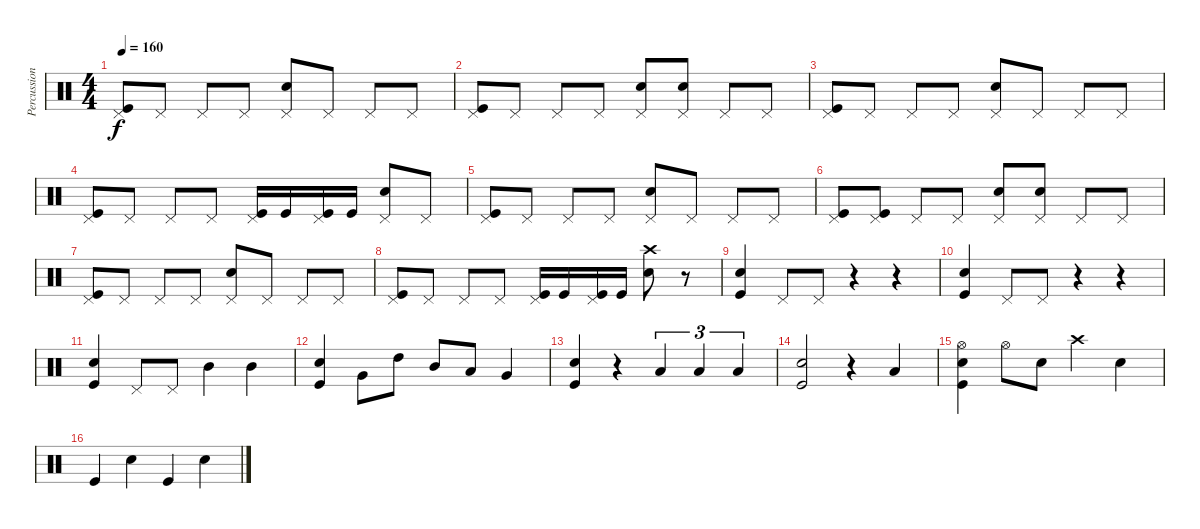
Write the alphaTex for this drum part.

\track ("Percussion" "Percussion") {instrument percussion}
\staff {score}
\articulation defaults
\ts (4 4)
\tempo 160
\clef neutral
\ks c
("Pedal Hi-Hat (hit)" "Kick (hit)").8{dy f} "Pedal Hi-Hat (hit)".8 "Pedal Hi-Hat (hit)".8 "Pedal Hi-Hat (hit)".8 ("Pedal Hi-Hat (hit)" "Electric Snare (hit)").8 "Pedal Hi-Hat (hit)".8 "Pedal Hi-Hat (hit)".8 "Pedal Hi-Hat (hit)".8 |
("Pedal Hi-Hat (hit)" "Kick (hit)").8 "Pedal Hi-Hat (hit)".8 "Pedal Hi-Hat (hit)".8 "Pedal Hi-Hat (hit)".8 ("Pedal Hi-Hat (hit)" "Electric Snare (hit)").8 ("Pedal Hi-Hat (hit)" "Electric Snare (hit)").8 "Pedal Hi-Hat (hit)".8 "Pedal Hi-Hat (hit)".8 |
("Pedal Hi-Hat (hit)" "Kick (hit)").8 "Pedal Hi-Hat (hit)".8 "Pedal Hi-Hat (hit)".8 "Pedal Hi-Hat (hit)".8 ("Pedal Hi-Hat (hit)" "Electric Snare (hit)").8 "Pedal Hi-Hat (hit)".8 "Pedal Hi-Hat (hit)".8 "Pedal Hi-Hat (hit)".8 |
("Pedal Hi-Hat (hit)" "Kick (hit)").8 "Pedal Hi-Hat (hit)".8 "Pedal Hi-Hat (hit)".8 "Pedal Hi-Hat (hit)".8 ("Pedal Hi-Hat (hit)" "Kick (hit)").16 "Kick (hit)".16 ("Pedal Hi-Hat (hit)" "Kick (hit)").16 "Kick (hit)".16 ("Pedal Hi-Hat (hit)" "Electric Snare (hit)").8 "Pedal Hi-Hat (hit)".8 |
("Pedal Hi-Hat (hit)" "Kick (hit)").8 "Pedal Hi-Hat (hit)".8 "Pedal Hi-Hat (hit)".8 "Pedal Hi-Hat (hit)".8 ("Pedal Hi-Hat (hit)" "Electric Snare (hit)").8 "Pedal Hi-Hat (hit)".8 "Pedal Hi-Hat (hit)".8 "Pedal Hi-Hat (hit)".8 |
("Pedal Hi-Hat (hit)" "Kick (hit)").8 ("Pedal Hi-Hat (hit)" "Kick (hit)").8 "Pedal Hi-Hat (hit)".8 "Pedal Hi-Hat (hit)".8 ("Pedal Hi-Hat (hit)" "Electric Snare (hit)").8 ("Pedal Hi-Hat (hit)" "Electric Snare (hit)").8 "Pedal Hi-Hat (hit)".8 "Pedal Hi-Hat (hit)".8 |
("Pedal Hi-Hat (hit)" "Kick (hit)").8 "Pedal Hi-Hat (hit)".8 "Pedal Hi-Hat (hit)".8 "Pedal Hi-Hat (hit)".8 ("Pedal Hi-Hat (hit)" "Electric Snare (hit)").8 "Pedal Hi-Hat (hit)".8 "Pedal Hi-Hat (hit)".8 "Pedal Hi-Hat (hit)".8 |
("Pedal Hi-Hat (hit)" "Kick (hit)").8 "Pedal Hi-Hat (hit)".8 "Pedal Hi-Hat (hit)".8 "Pedal Hi-Hat (hit)".8 ("Pedal Hi-Hat (hit)" "Kick (hit)").16 "Kick (hit)".16 ("Pedal Hi-Hat (hit)" "Kick (hit)").16 "Kick (hit)".16 ("Crash high (hit)" "Electric Snare (hit)").8 r.8 |
("Electric Snare (hit)" "Kick (hit)").4 "Pedal Hi-Hat (hit)".8 "Pedal Hi-Hat (hit)".8 r.4 r.4 |
("Electric Snare (hit)" "Kick (hit)").4 "Pedal Hi-Hat (hit)".8 "Pedal Hi-Hat (hit)".8 r.4 r.4 |
("Electric Snare (hit)" "Kick (hit)").4 "Pedal Hi-Hat (hit)".8 "Pedal Hi-Hat (hit)".8 "Mid Tom (hit)".4 "Mid Tom (hit)".4 |
("Electric Snare (hit)" "Kick (hit)").4 "Very Low Tom (hit)".8 "High Tom (hit)".8 "Mid Tom (hit)".8 "Low Tom (hit)".8 "Very Low Tom (hit)".4 |
("Electric Snare (hit)" "Kick (hit)").4 r.4 "Low Tom (hit)".4{tu (3 2)} "Low Tom (hit)".4{tu (3 2)} "Low Tom (hit)".4{tu (3 2)} |
("Electric Snare (hit)" "Kick (hit)").2 r.4 "Low Tom (hit)".4 |
("Hi-Hat (open)" "Electric Snare (hit)" "Kick (hit)").4 "Hi-Hat (open)".8 "Electric Snare (hit)".8 "Crash high (hit)".4 "Electric Snare (hit)".4 |
"Kick (hit)".4 "Electric Snare (hit)".4 "Kick (hit)".4 "Electric Snare (hit)".4
